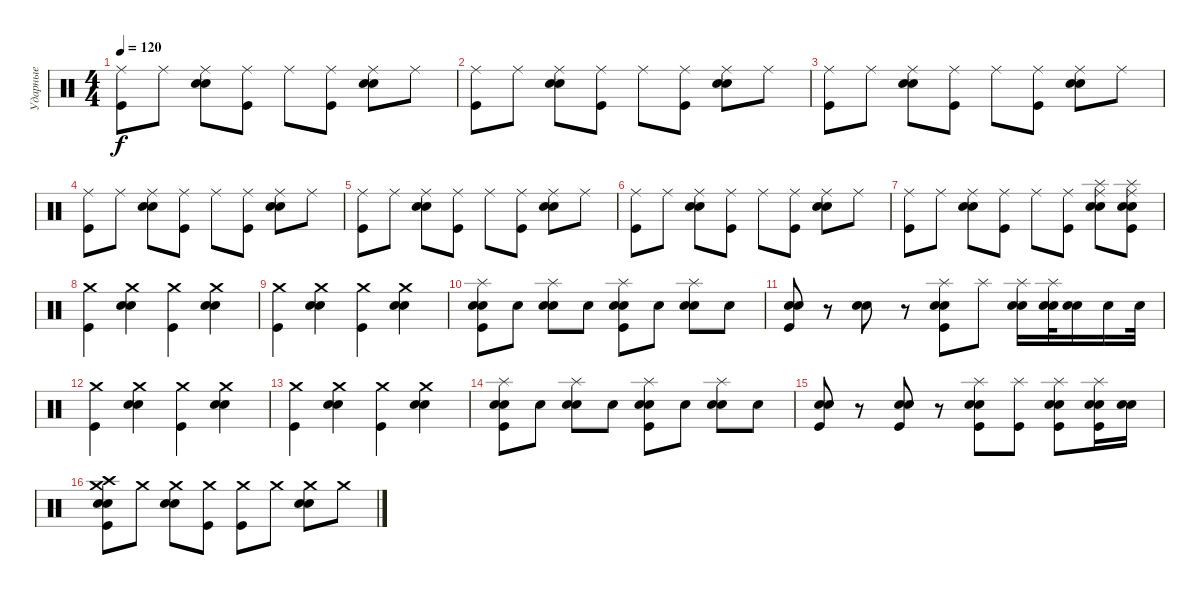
\track ("Ударные" "Ударные") {instrument percussion}
\staff {score}
\articulation defaults
\ts (4 4)
\tempo 120
\clef neutral
\ks c
("Ride (middle)" "Kick (hit)").8{dy f} "Ride (middle)".8 ("Ride (middle)" "Electric Snare (hit)" "Electric Snare (hit)").8 ("Ride (middle)" "Kick (hit)").8 "Ride (middle)".8 ("Ride (middle)" "Kick (hit)").8 ("Ride (middle)" "Electric Snare (hit)" "Electric Snare (hit)").8 "Ride (middle)".8 |
("Ride (middle)" "Kick (hit)").8 "Ride (middle)".8 ("Ride (middle)" "Electric Snare (hit)" "Electric Snare (hit)").8 ("Ride (middle)" "Kick (hit)").8 "Ride (middle)".8 ("Ride (middle)" "Kick (hit)").8 ("Ride (middle)" "Electric Snare (hit)" "Electric Snare (hit)").8 "Ride (middle)".8 |
("Ride (middle)" "Kick (hit)").8 "Ride (middle)".8 ("Ride (middle)" "Electric Snare (hit)" "Electric Snare (hit)").8 ("Ride (middle)" "Kick (hit)").8 "Ride (middle)".8 ("Ride (middle)" "Kick (hit)").8 ("Ride (middle)" "Electric Snare (hit)" "Electric Snare (hit)").8 "Ride (middle)".8 |
("Ride (middle)" "Kick (hit)").8 "Ride (middle)".8 ("Ride (middle)" "Electric Snare (hit)" "Electric Snare (hit)").8 ("Ride (middle)" "Kick (hit)").8 "Ride (middle)".8 ("Ride (middle)" "Kick (hit)").8 ("Ride (middle)" "Electric Snare (hit)" "Electric Snare (hit)").8 "Ride (middle)".8 |
("Ride (middle)" "Kick (hit)").8 "Ride (middle)".8 ("Ride (middle)" "Electric Snare (hit)" "Electric Snare (hit)").8 ("Ride (middle)" "Kick (hit)").8 "Ride (middle)".8 ("Ride (middle)" "Kick (hit)").8 ("Ride (middle)" "Electric Snare (hit)" "Electric Snare (hit)").8 "Ride (middle)".8 |
("Ride (middle)" "Kick (hit)").8 "Ride (middle)".8 ("Ride (middle)" "Electric Snare (hit)" "Electric Snare (hit)").8 ("Ride (middle)" "Kick (hit)").8 "Ride (middle)".8 ("Ride (middle)" "Kick (hit)").8 ("Ride (middle)" "Electric Snare (hit)" "Electric Snare (hit)").8 "Ride (middle)".8 |
("Ride (middle)" "Kick (hit)").8 "Ride (middle)".8 ("Ride (middle)" "Electric Snare (hit)" "Electric Snare (hit)").8 ("Ride (middle)" "Kick (hit)").8 "Ride (middle)".8 ("Ride (middle)" "Kick (hit)").8 ("Ride (middle)" "Splash (hit)" "Electric Snare (hit)" "Electric Snare (hit)").8 ("Ride (middle)" "Splash (hit)" "Electric Snare (hit)" "Electric Snare (hit)" "Kick (hit)").8 |
("Crash medium (hit)" "Kick (hit)").4 ("Crash medium (hit)" "Electric Snare (hit)" "Electric Snare (hit)").4 ("Crash medium (hit)" "Kick (hit)").4 ("Crash medium (hit)" "Electric Snare (hit)" "Electric Snare (hit)").4 |
("Crash medium (hit)" "Kick (hit)").4 ("Crash medium (hit)" "Electric Snare (hit)" "Electric Snare (hit)").4 ("Crash medium (hit)" "Kick (hit)").4 ("Crash medium (hit)" "Electric Snare (hit)" "Electric Snare (hit)").4 |
("Splash (hit)" "Electric Snare (hit)" "Electric Snare (hit)" "Kick (hit)").8 "Electric Snare (hit)".8 ("Splash (hit)" "Electric Snare (hit)" "Electric Snare (hit)").8 "Electric Snare (hit)".8 ("Splash (hit)" "Electric Snare (hit)" "Electric Snare (hit)" "Kick (hit)").8 "Electric Snare (hit)".8 ("Splash (hit)" "Electric Snare (hit)" "Electric Snare (hit)").8 "Electric Snare (hit)".8 |
("Electric Snare (hit)" "Electric Snare (hit)" "Kick (hit)").8 r.8 ("Electric Snare (hit)" "Electric Snare (hit)").8 r.8 ("Splash (hit)" "Electric Snare (hit)" "Electric Snare (hit)" "Kick (hit)").8 "Splash (hit)".8 ("Splash (hit)" "Electric Snare (hit)" "Electric Snare (hit)").16 ("Splash (hit)" "Electric Snare (hit)" "Electric Snare (hit)").32 ("Electric Snare (hit)" "Electric Snare (hit)").16 "Electric Snare (hit)".16 "Electric Snare (hit)".32 |
("Crash medium (hit)" "Kick (hit)").4 ("Crash medium (hit)" "Electric Snare (hit)" "Electric Snare (hit)").4 ("Crash medium (hit)" "Kick (hit)").4 ("Crash medium (hit)" "Electric Snare (hit)" "Electric Snare (hit)").4 |
("Crash medium (hit)" "Kick (hit)").4 ("Crash medium (hit)" "Electric Snare (hit)" "Electric Snare (hit)").4 ("Crash medium (hit)" "Kick (hit)").4 ("Crash medium (hit)" "Electric Snare (hit)" "Electric Snare (hit)").4 |
("Splash (hit)" "Electric Snare (hit)" "Electric Snare (hit)" "Kick (hit)").8 "Electric Snare (hit)".8 ("Splash (hit)" "Electric Snare (hit)" "Electric Snare (hit)").8 "Electric Snare (hit)".8 ("Splash (hit)" "Electric Snare (hit)" "Electric Snare (hit)" "Kick (hit)").8 "Electric Snare (hit)".8 ("Splash (hit)" "Electric Snare (hit)" "Electric Snare (hit)").8 "Electric Snare (hit)".8 |
("Electric Snare (hit)" "Electric Snare (hit)" "Kick (hit)").8 r.8 ("Electric Snare (hit)" "Electric Snare (hit)" "Kick (hit)").8 r.8 ("Splash (hit)" "Electric Snare (hit)" "Electric Snare (hit)" "Kick (hit)").8 ("Splash (hit)" "Kick (hit)").8 ("Splash (hit)" "Electric Snare (hit)" "Electric Snare (hit)" "Kick (hit)").8 ("Splash (hit)" "Electric Snare (hit)" "Electric Snare (hit)" "Kick (hit)").16 ("Electric Snare (hit)" "Electric Snare (hit)").16 |
("Crash medium (hit)" "Crash high (hit)" "Electric Snare (hit)" "Electric Snare (hit)" "Kick (hit)").8 "Crash medium (hit)".8 ("Crash medium (hit)" "Electric Snare (hit)" "Electric Snare (hit)").8 ("Crash medium (hit)" "Kick (hit)").8 ("Crash medium (hit)" "Kick (hit)").8 "Crash medium (hit)".8 ("Crash medium (hit)" "Electric Snare (hit)" "Electric Snare (hit)").8 "Crash medium (hit)".8
